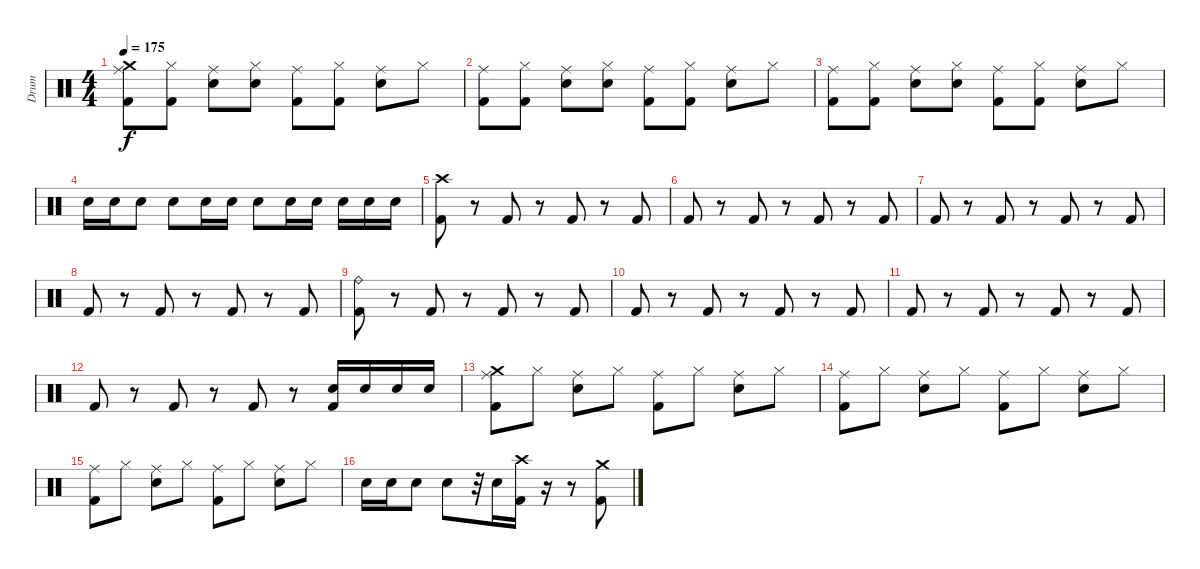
\track ("Drum" "Drum") {instrument percussion}
\staff {score}
\articulation defaults
\ts (4 4)
\tempo 175
\clef neutral
\ks c
("Ride (middle)" "Kick (hit) 2" "Crash medium (hit)").8{dy f} ("Hi-Hat (closed)" "Kick (hit) 2").8 ("Ride (middle)" "Electric Snare (hit)").8 ("Hi-Hat (closed)" "Electric Snare (hit)").8 ("Ride (middle)" "Kick (hit) 2").8 ("Hi-Hat (closed)" "Kick (hit) 2").8 ("Ride (middle)" "Electric Snare (hit)").8 "Hi-Hat (closed)".8 |
("Ride (middle)" "Kick (hit) 2").8 ("Hi-Hat (closed)" "Kick (hit) 2").8 ("Ride (middle)" "Electric Snare (hit)").8 ("Hi-Hat (closed)" "Electric Snare (hit)").8 ("Ride (middle)" "Kick (hit) 2").8 ("Hi-Hat (closed)" "Kick (hit) 2").8 ("Ride (middle)" "Electric Snare (hit)").8 "Hi-Hat (closed)".8 |
("Ride (middle)" "Kick (hit) 2").8 ("Hi-Hat (closed)" "Kick (hit) 2").8 ("Ride (middle)" "Electric Snare (hit)").8 ("Hi-Hat (closed)" "Electric Snare (hit)").8 ("Ride (middle)" "Kick (hit) 2").8 ("Hi-Hat (closed)" "Kick (hit) 2").8 ("Ride (middle)" "Electric Snare (hit)").8 "Hi-Hat (closed)".8 |
"Electric Snare (hit)".16 "Electric Snare (hit)".16 "Electric Snare (hit)".8 "Electric Snare (hit)".8 "Electric Snare (hit)".16 "Electric Snare (hit)".16 "Electric Snare (hit)".8 "Electric Snare (hit)".16 "Electric Snare (hit)".16 "Electric Snare (hit)".16 "Electric Snare (hit)".16 "Electric Snare (hit)".16 |
("Kick (hit) 2" "Crash high (hit)").8 r.8 "Kick (hit) 2".8 r.8 "Kick (hit) 2".8 r.8 "Kick (hit) 2".8 |
"Kick (hit) 2".8 r.8 "Kick (hit) 2".8 r.8 "Kick (hit) 2".8 r.8 "Kick (hit) 2".8 |
"Kick (hit) 2".8 r.8 "Kick (hit) 2".8 r.8 "Kick (hit) 2".8 r.8 "Kick (hit) 2".8 |
"Kick (hit) 2".8 r.8 "Kick (hit) 2".8 r.8 "Kick (hit) 2".8 r.8 "Kick (hit) 2".8 |
("Kick (hit) 2" "Ride (bell)").8 r.8 "Kick (hit) 2".8 r.8 "Kick (hit) 2".8 r.8 "Kick (hit) 2".8 |
"Kick (hit) 2".8 r.8 "Kick (hit) 2".8 r.8 "Kick (hit) 2".8 r.8 "Kick (hit) 2".8 |
"Kick (hit) 2".8 r.8 "Kick (hit) 2".8 r.8 "Kick (hit) 2".8 r.8 "Kick (hit) 2".8 |
"Kick (hit) 2".8 r.8 "Kick (hit) 2".8 r.8 "Kick (hit) 2".8 r.8 ("Electric Snare (hit)" "Kick (hit) 2").16 "Electric Snare (hit)".16 "Electric Snare (hit)".16 "Electric Snare (hit)".16 |
("Ride (middle)" "Kick (hit) 2" "Crash medium (hit)").8 "Hi-Hat (closed)".8 ("Ride (middle)" "Electric Snare (hit)").8 "Hi-Hat (closed)".8 ("Ride (middle)" "Kick (hit) 2").8 "Hi-Hat (closed)".8 ("Ride (middle)" "Electric Snare (hit)").8 "Hi-Hat (closed)".8 |
("Ride (middle)" "Kick (hit) 2").8 "Hi-Hat (closed)".8 ("Ride (middle)" "Electric Snare (hit)").8 "Hi-Hat (closed)".8 ("Ride (middle)" "Kick (hit) 2").8 "Hi-Hat (closed)".8 ("Ride (middle)" "Electric Snare (hit)").8 "Hi-Hat (closed)".8 |
("Ride (middle)" "Kick (hit) 2").8 "Hi-Hat (closed)".8 ("Ride (middle)" "Electric Snare (hit)").8 "Hi-Hat (closed)".8 ("Ride (middle)" "Kick (hit) 2").8 "Hi-Hat (closed)".8 ("Ride (middle)" "Electric Snare (hit)").8 "Hi-Hat (closed)".8 |
"Electric Snare (hit)".16 "Electric Snare (hit)".16 "Electric Snare (hit)".8 "Electric Snare (hit)".8 r.32 "Electric Snare (hit)".16 ("Kick (hit) 2" "Crash high (hit)").16 r.16 r.8 ("Kick (hit) 2" "Crash medium (hit)").8
